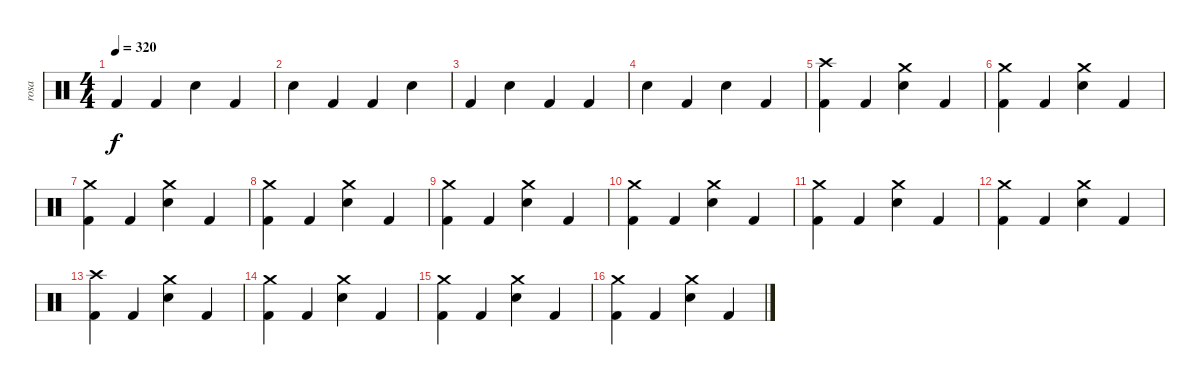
\track ("rosa" "rosa") {instrument percussion}
\staff {score}
\articulation defaults
\ts (4 4)
\tempo 320
\clef neutral
\ks c "Kick (hit) 2".4{dy f} "Kick (hit) 2".4 "Electric Snare (hit)".4 "Kick (hit) 2".4
|
"Electric Snare (hit)".4 "Kick (hit) 2".4 "Kick (hit) 2".4 "Electric Snare (hit)".4 |
"Kick (hit) 2".4 "Electric Snare (hit)".4 "Kick (hit) 2".4 "Kick (hit) 2".4 |
"Electric Snare (hit)".4 "Kick (hit) 2".4 "Electric Snare (hit)".4 "Kick (hit) 2".4 |
("Crash high (hit)" "Kick (hit) 2").4 "Kick (hit) 2".4 ("Crash medium (hit)" "Electric Snare (hit)").4 "Kick (hit) 2".4 |
("Crash medium (hit)" "Kick (hit) 2").4 "Kick (hit) 2".4 ("Crash medium (hit)" "Electric Snare (hit)").4 "Kick (hit) 2".4 |
("Crash medium (hit)" "Kick (hit) 2").4 "Kick (hit) 2".4 ("Crash medium (hit)" "Electric Snare (hit)").4 "Kick (hit) 2".4 |
("Crash medium (hit)" "Kick (hit) 2").4 "Kick (hit) 2".4 ("Crash medium (hit)" "Electric Snare (hit)").4 "Kick (hit) 2".4 |
("Crash medium (hit)" "Kick (hit) 2").4 "Kick (hit) 2".4 ("Crash medium (hit)" "Electric Snare (hit)").4 "Kick (hit) 2".4 |
("Crash medium (hit)" "Kick (hit) 2").4 "Kick (hit) 2".4 ("Crash medium (hit)" "Electric Snare (hit)").4 "Kick (hit) 2".4 |
("Crash medium (hit)" "Kick (hit) 2").4 "Kick (hit) 2".4 ("Crash medium (hit)" "Electric Snare (hit)").4 "Kick (hit) 2".4 |
("Crash medium (hit)" "Kick (hit) 2").4 "Kick (hit) 2".4 ("Crash medium (hit)" "Electric Snare (hit)").4 "Kick (hit) 2".4 |
("Crash high (hit)" "Kick (hit) 2").4 "Kick (hit) 2".4 ("Crash medium (hit)" "Electric Snare (hit)").4 "Kick (hit) 2".4 |
("Crash medium (hit)" "Kick (hit) 2").4 "Kick (hit) 2".4 ("Crash medium (hit)" "Electric Snare (hit)").4 "Kick (hit) 2".4 |
("Crash medium (hit)" "Kick (hit) 2").4 "Kick (hit) 2".4 ("Crash medium (hit)" "Electric Snare (hit)").4 "Kick (hit) 2".4 |
("Crash medium (hit)" "Kick (hit) 2").4 "Kick (hit) 2".4 ("Crash medium (hit)" "Electric Snare (hit)").4 "Kick (hit) 2".4
